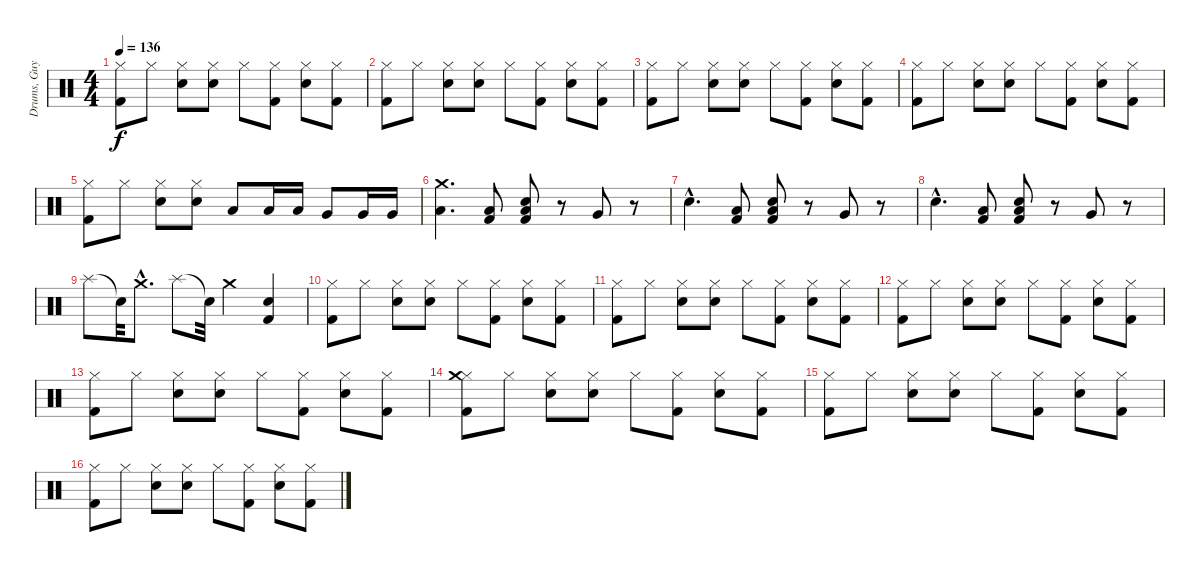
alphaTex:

\track ("Drums, Guy" "Drums, Guy") {instrument percussion}
\staff {score}
\articulation defaults
\ts (4 4)
\tempo 136
\clef neutral
\ks c
("Hi-Hat (closed)" "Kick (hit) 2").8{dy f} "Hi-Hat (closed)".8 ("Electric Snare (hit)" "Hi-Hat (closed)").8 ("Electric Snare (hit)" "Hi-Hat (closed)").8 "Hi-Hat (closed)".8 ("Kick (hit) 2" "Hi-Hat (closed)").8 ("Electric Snare (hit)" "Hi-Hat (closed)").8 ("Kick (hit) 2" "Hi-Hat (closed)").8 |
("Kick (hit) 2" "Hi-Hat (closed)").8 "Hi-Hat (closed)".8 ("Electric Snare (hit)" "Hi-Hat (closed)").8 ("Electric Snare (hit)" "Hi-Hat (closed)").8 "Hi-Hat (closed)".8 ("Kick (hit) 2" "Hi-Hat (closed)").8 ("Electric Snare (hit)" "Hi-Hat (closed)").8 ("Kick (hit) 2" "Hi-Hat (closed)").8 |
("Kick (hit) 2" "Hi-Hat (closed)").8 "Hi-Hat (closed)".8 ("Electric Snare (hit)" "Hi-Hat (closed)").8 ("Electric Snare (hit)" "Hi-Hat (closed)").8 "Hi-Hat (closed)".8 ("Kick (hit) 2" "Hi-Hat (closed)").8 ("Electric Snare (hit)" "Hi-Hat (closed)").8 ("Kick (hit) 2" "Hi-Hat (closed)").8 |
("Kick (hit) 2" "Hi-Hat (closed)").8 "Hi-Hat (closed)".8 ("Electric Snare (hit)" "Hi-Hat (closed)").8 ("Electric Snare (hit)" "Hi-Hat (closed)").8 "Hi-Hat (closed)".8 ("Kick (hit) 2" "Hi-Hat (closed)").8 ("Electric Snare (hit)" "Hi-Hat (closed)").8 ("Kick (hit) 2" "Hi-Hat (closed)").8 |
("Kick (hit) 2" "Hi-Hat (closed)").8 "Hi-Hat (closed)".8 ("Electric Snare (hit)" "Hi-Hat (closed)").8 ("Electric Snare (hit)" "Hi-Hat (closed)").8 "Low Tom (hit)".8 "Low Tom (hit)".16 "Low Tom (hit)".16 "Very Low Tom (hit)".8 "Very Low Tom (hit)".16 "Very Low Tom (hit)".16 |
("Low Floor Tom (hit)" "Crash medium (hit)").4{d} ("Kick (hit) 2" "Low Floor Tom (hit)").8 ("Kick (hit) 2" "Low Floor Tom (hit)" "Electric Snare (hit)").8 r.8 "Very Low Tom (hit)".8 r.8 |
"Electric Snare (hit)"{hac}.4{d} ("Kick (hit) 2" "Low Floor Tom (hit)").8 ("Kick (hit) 2" "Low Floor Tom (hit)" "Electric Snare (hit)").8 r.8 "Very Low Tom (hit)".8 r.8 |
"Electric Snare (hit)"{hac}.4{d} ("Kick (hit) 2" "Low Floor Tom (hit)").8 ("Kick (hit) 2" "Low Floor Tom (hit)" "Electric Snare (hit)").8 r.8 "Very Low Tom (hit)".8 r.8 |
"Splash (hit)".8 "Snare (hit)"{t}.32 "Crash medium (hit)"{hac}.8{d} "Splash (hit)".8 "Snare (hit)"{t}.32 "Crash medium (hit)".4 ("Kick (hit) 2" "Electric Snare (hit)").4 |
("Kick (hit) 2" "Hi-Hat (closed)").8 "Hi-Hat (closed)".8 ("Electric Snare (hit)" "Hi-Hat (closed)").8 ("Electric Snare (hit)" "Hi-Hat (closed)").8 "Hi-Hat (closed)".8 ("Kick (hit) 2" "Hi-Hat (closed)").8 ("Electric Snare (hit)" "Hi-Hat (closed)").8 ("Kick (hit) 2" "Hi-Hat (closed)").8 |
("Hi-Hat (closed)" "Kick (hit) 2").8 "Hi-Hat (closed)".8 ("Electric Snare (hit)" "Hi-Hat (closed)").8 ("Electric Snare (hit)" "Hi-Hat (closed)").8 "Hi-Hat (closed)".8 ("Kick (hit) 2" "Hi-Hat (closed)").8 ("Electric Snare (hit)" "Hi-Hat (closed)").8 ("Kick (hit) 2" "Hi-Hat (closed)").8 |
("Hi-Hat (closed)" "Kick (hit) 2").8 "Hi-Hat (closed)".8 ("Electric Snare (hit)" "Hi-Hat (closed)").8 ("Electric Snare (hit)" "Hi-Hat (closed)").8 "Hi-Hat (closed)".8 ("Kick (hit) 2" "Hi-Hat (closed)").8 ("Electric Snare (hit)" "Hi-Hat (closed)").8 ("Kick (hit) 2" "Hi-Hat (closed)").8 |
("Hi-Hat (closed)" "Kick (hit) 2").8 "Hi-Hat (closed)".8 ("Electric Snare (hit)" "Hi-Hat (closed)").8 ("Electric Snare (hit)" "Hi-Hat (closed)").8 "Hi-Hat (closed)".8 ("Kick (hit) 2" "Hi-Hat (closed)").8 ("Electric Snare (hit)" "Hi-Hat (closed)").8 ("Kick (hit) 2" "Hi-Hat (closed)").8 |
("Hi-Hat (closed)" "Kick (hit) 2" "Crash medium (hit)").8 "Hi-Hat (closed)".8 ("Electric Snare (hit)" "Hi-Hat (closed)").8 ("Electric Snare (hit)" "Hi-Hat (closed)").8 "Hi-Hat (closed)".8 ("Kick (hit) 2" "Hi-Hat (closed)").8 ("Electric Snare (hit)" "Hi-Hat (closed)").8 ("Kick (hit) 2" "Hi-Hat (closed)").8 |
("Hi-Hat (closed)" "Kick (hit) 2").8 "Hi-Hat (closed)".8 ("Electric Snare (hit)" "Hi-Hat (closed)").8 ("Electric Snare (hit)" "Hi-Hat (closed)").8 "Hi-Hat (closed)".8 ("Kick (hit) 2" "Hi-Hat (closed)").8 ("Electric Snare (hit)" "Hi-Hat (closed)").8 ("Kick (hit) 2" "Hi-Hat (closed)").8 |
("Hi-Hat (closed)" "Kick (hit) 2").8 "Hi-Hat (closed)".8 ("Electric Snare (hit)" "Hi-Hat (closed)").8 ("Electric Snare (hit)" "Hi-Hat (closed)").8 "Hi-Hat (closed)".8 ("Kick (hit) 2" "Hi-Hat (closed)").8 ("Electric Snare (hit)" "Hi-Hat (closed)").8 ("Kick (hit) 2" "Hi-Hat (closed)").8
